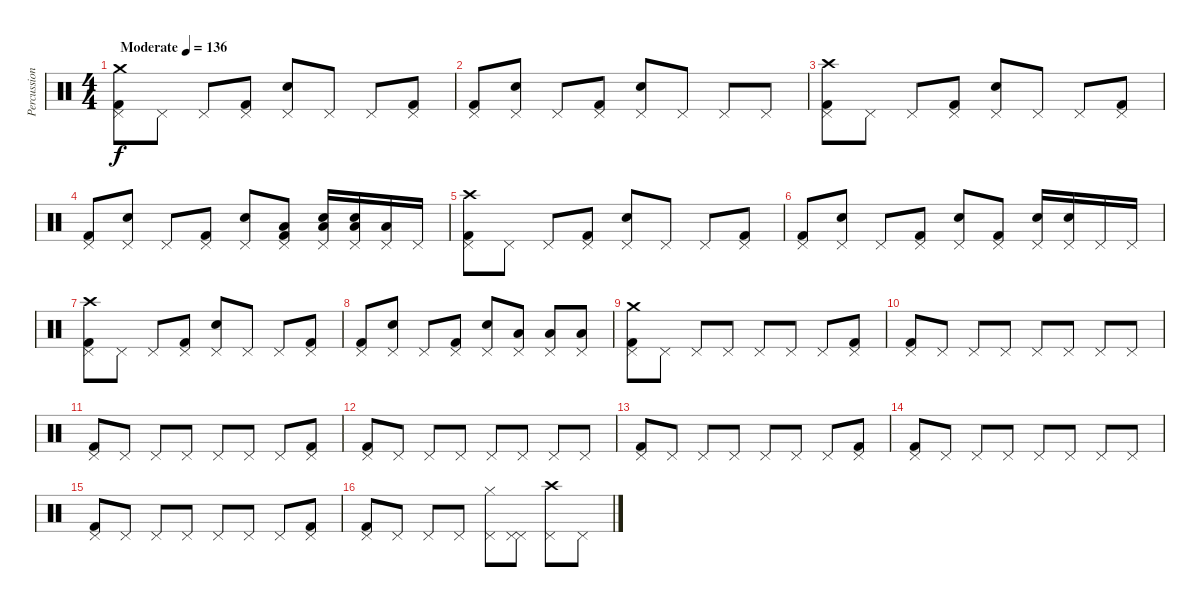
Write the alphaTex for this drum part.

\track ("Percussion" "Percussion") {instrument percussion}
\staff {score}
\articulation defaults
\ts (4 4)
\tempo (136 "Moderate")
\clef neutral
\ks c
("Kick (hit) 2" "Pedal Hi-Hat (hit)" "Crash medium (hit)").8{dy f} "Pedal Hi-Hat (hit)".8 "Pedal Hi-Hat (hit)".8 ("Kick (hit) 2" "Pedal Hi-Hat (hit)").8 ("Pedal Hi-Hat (hit)" "Electric Snare (hit)").8 "Pedal Hi-Hat (hit)".8 "Pedal Hi-Hat (hit)".8 ("Kick (hit) 2" "Pedal Hi-Hat (hit)").8 |
("Kick (hit) 2" "Pedal Hi-Hat (hit)").8 ("Pedal Hi-Hat (hit)" "Electric Snare (hit)").8 "Pedal Hi-Hat (hit)".8 ("Kick (hit) 2" "Pedal Hi-Hat (hit)").8 ("Pedal Hi-Hat (hit)" "Electric Snare (hit)").8 "Pedal Hi-Hat (hit)".8 "Pedal Hi-Hat (hit)".8 "Pedal Hi-Hat (hit)".8 |
("Kick (hit) 2" "Pedal Hi-Hat (hit)" "Crash high (hit)").8 "Pedal Hi-Hat (hit)".8 "Pedal Hi-Hat (hit)".8 ("Kick (hit) 2" "Pedal Hi-Hat (hit)").8 ("Pedal Hi-Hat (hit)" "Electric Snare (hit)").8 "Pedal Hi-Hat (hit)".8 "Pedal Hi-Hat (hit)".8 ("Kick (hit) 2" "Pedal Hi-Hat (hit)").8 |
("Kick (hit) 2" "Pedal Hi-Hat (hit)").8 ("Pedal Hi-Hat (hit)" "Electric Snare (hit)").8 "Pedal Hi-Hat (hit)".8 ("Kick (hit) 2" "Pedal Hi-Hat (hit)").8 ("Pedal Hi-Hat (hit)" "Electric Snare (hit)").8 ("Kick (hit) 2" "Pedal Hi-Hat (hit)" "Low Tom (hit)").8 ("Pedal Hi-Hat (hit)" "Electric Snare (hit)" "Low Tom (hit)").16 ("Pedal Hi-Hat (hit)" "Electric Snare (hit)" "Low Tom (hit)").16 ("Pedal Hi-Hat (hit)" "Low Tom (hit)").16 "Pedal Hi-Hat (hit)".16 |
("Kick (hit) 2" "Pedal Hi-Hat (hit)" "Crash high (hit)").8 "Pedal Hi-Hat (hit)".8 "Pedal Hi-Hat (hit)".8 ("Kick (hit) 2" "Pedal Hi-Hat (hit)").8 ("Pedal Hi-Hat (hit)" "Electric Snare (hit)").8 "Pedal Hi-Hat (hit)".8 "Pedal Hi-Hat (hit)".8 ("Kick (hit) 2" "Pedal Hi-Hat (hit)").8 |
("Kick (hit) 2" "Pedal Hi-Hat (hit)").8 ("Pedal Hi-Hat (hit)" "Electric Snare (hit)").8 "Pedal Hi-Hat (hit)".8 ("Kick (hit) 2" "Pedal Hi-Hat (hit)").8 ("Pedal Hi-Hat (hit)" "Electric Snare (hit)").8 ("Kick (hit) 2" "Pedal Hi-Hat (hit)").8 ("Pedal Hi-Hat (hit)" "Electric Snare (hit)").16 ("Pedal Hi-Hat (hit)" "Electric Snare (hit)").16 "Pedal Hi-Hat (hit)".16 "Pedal Hi-Hat (hit)".16 |
("Kick (hit) 2" "Pedal Hi-Hat (hit)" "Crash high (hit)").8 "Pedal Hi-Hat (hit)".8 "Pedal Hi-Hat (hit)".8 ("Kick (hit) 2" "Pedal Hi-Hat (hit)").8 ("Pedal Hi-Hat (hit)" "Electric Snare (hit)").8 "Pedal Hi-Hat (hit)".8 "Pedal Hi-Hat (hit)".8 ("Kick (hit) 2" "Pedal Hi-Hat (hit)").8 |
("Kick (hit) 2" "Pedal Hi-Hat (hit)").8 ("Pedal Hi-Hat (hit)" "Electric Snare (hit)").8 "Pedal Hi-Hat (hit)".8 ("Kick (hit) 2" "Pedal Hi-Hat (hit)").8 ("Pedal Hi-Hat (hit)" "Electric Snare (hit)").8 ("Pedal Hi-Hat (hit)" "Low Tom (hit)").8 ("Pedal Hi-Hat (hit)" "Low Tom (hit)").8 ("Pedal Hi-Hat (hit)" "Low Tom (hit)").8 |
("Kick (hit) 2" "Pedal Hi-Hat (hit)" "Crash medium (hit)").8 "Pedal Hi-Hat (hit)".8 "Pedal Hi-Hat (hit)".8 "Pedal Hi-Hat (hit)".8 "Pedal Hi-Hat (hit)".8 "Pedal Hi-Hat (hit)".8 "Pedal Hi-Hat (hit)".8 ("Kick (hit) 2" "Pedal Hi-Hat (hit)").8 |
("Kick (hit) 2" "Pedal Hi-Hat (hit)").8 "Pedal Hi-Hat (hit)".8 "Pedal Hi-Hat (hit)".8 "Pedal Hi-Hat (hit)".8 "Pedal Hi-Hat (hit)".8 "Pedal Hi-Hat (hit)".8 "Pedal Hi-Hat (hit)".8 "Pedal Hi-Hat (hit)".8 |
("Kick (hit) 2" "Pedal Hi-Hat (hit)").8 "Pedal Hi-Hat (hit)".8 "Pedal Hi-Hat (hit)".8 "Pedal Hi-Hat (hit)".8 "Pedal Hi-Hat (hit)".8 "Pedal Hi-Hat (hit)".8 "Pedal Hi-Hat (hit)".8 ("Kick (hit) 2" "Pedal Hi-Hat (hit)").8 |
("Kick (hit) 2" "Pedal Hi-Hat (hit)").8 "Pedal Hi-Hat (hit)".8 "Pedal Hi-Hat (hit)".8 "Pedal Hi-Hat (hit)".8 "Pedal Hi-Hat (hit)".8 "Pedal Hi-Hat (hit)".8 "Pedal Hi-Hat (hit)".8 "Pedal Hi-Hat (hit)".8 |
("Kick (hit) 2" "Pedal Hi-Hat (hit)").8 "Pedal Hi-Hat (hit)".8 "Pedal Hi-Hat (hit)".8 "Pedal Hi-Hat (hit)".8 "Pedal Hi-Hat (hit)".8 "Pedal Hi-Hat (hit)".8 "Pedal Hi-Hat (hit)".8 ("Kick (hit) 2" "Pedal Hi-Hat (hit)").8 |
("Kick (hit) 2" "Pedal Hi-Hat (hit)").8 "Pedal Hi-Hat (hit)".8 "Pedal Hi-Hat (hit)".8 "Pedal Hi-Hat (hit)".8 "Pedal Hi-Hat (hit)".8 "Pedal Hi-Hat (hit)".8 "Pedal Hi-Hat (hit)".8 "Pedal Hi-Hat (hit)".8 |
("Kick (hit) 2" "Pedal Hi-Hat (hit)").8 "Pedal Hi-Hat (hit)".8 "Pedal Hi-Hat (hit)".8 "Pedal Hi-Hat (hit)".8 "Pedal Hi-Hat (hit)".8 "Pedal Hi-Hat (hit)".8 "Pedal Hi-Hat (hit)".8 ("Kick (hit) 2" "Pedal Hi-Hat (hit)").8 |
("Kick (hit) 2" "Pedal Hi-Hat (hit)").8 "Pedal Hi-Hat (hit)".8 "Pedal Hi-Hat (hit)".8 "Pedal Hi-Hat (hit)".8 ("Pedal Hi-Hat (hit)" "Hi-Hat (closed)").8 ("Pedal Hi-Hat (hit)" "Pedal Hi-Hat (hit)").8 ("Pedal Hi-Hat (hit)" "Crash high (hit)").8 "Pedal Hi-Hat (hit)".8
